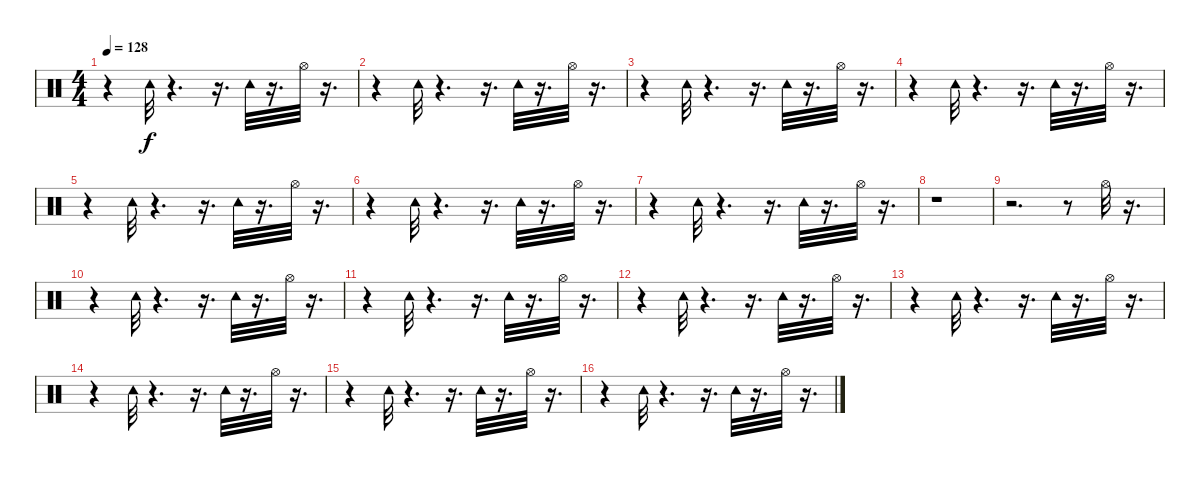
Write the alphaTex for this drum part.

\track "" {instrument percussion}
\staff {score}
\articulation defaults
\ts (4 4)
\tempo 128
\clef neutral
\ks c
r.4{dy f} "Tambourine (hit)".32 r.4{d} r.16{d} "Tambourine (hit)".32 r.16{d} "Hi-Hat (open)".32 r.16{d} |
r.4 "Tambourine (hit)".32 r.4{d} r.16{d} "Tambourine (hit)".32 r.16{d} "Hi-Hat (open)".32 r.16{d} |
r.4 "Tambourine (hit)".32 r.4{d} r.16{d} "Tambourine (hit)".32 r.16{d} "Hi-Hat (open)".32 r.16{d} |
r.4 "Tambourine (hit)".32 r.4{d} r.16{d} "Tambourine (hit)".32 r.16{d} "Hi-Hat (open)".32 r.16{d} |
r.4 "Tambourine (hit)".32 r.4{d} r.16{d} "Tambourine (hit)".32 r.16{d} "Hi-Hat (open)".32 r.16{d} |
r.4 "Tambourine (hit)".32 r.4{d} r.16{d} "Tambourine (hit)".32 r.16{d} "Hi-Hat (open)".32 r.16{d} |
r.4 "Tambourine (hit)".32 r.4{d} r.16{d} "Tambourine (hit)".32 r.16{d} "Hi-Hat (open)".32 r.16{d} |
r.1 |
r.2{d} r.8 "Hi-Hat (open)".32 r.16{d} |
r.4 "Tambourine (hit)".32 r.4{d} r.16{d} "Tambourine (hit)".32 r.16{d} "Hi-Hat (open)".32 r.16{d} |
r.4 "Tambourine (hit)".32 r.4{d} r.16{d} "Tambourine (hit)".32 r.16{d} "Hi-Hat (open)".32 r.16{d} |
r.4 "Tambourine (hit)".32 r.4{d} r.16{d} "Tambourine (hit)".32 r.16{d} "Hi-Hat (open)".32 r.16{d} |
r.4 "Tambourine (hit)".32 r.4{d} r.16{d} "Tambourine (hit)".32 r.16{d} "Hi-Hat (open)".32 r.16{d} |
r.4 "Tambourine (hit)".32 r.4{d} r.16{d} "Tambourine (hit)".32 r.16{d} "Hi-Hat (open)".32 r.16{d} |
r.4 "Tambourine (hit)".32 r.4{d} r.16{d} "Tambourine (hit)".32 r.16{d} "Hi-Hat (open)".32 r.16{d} |
r.4 "Tambourine (hit)".32 r.4{d} r.16{d} "Tambourine (hit)".32 r.16{d} "Hi-Hat (open)".32 r.16{d}
